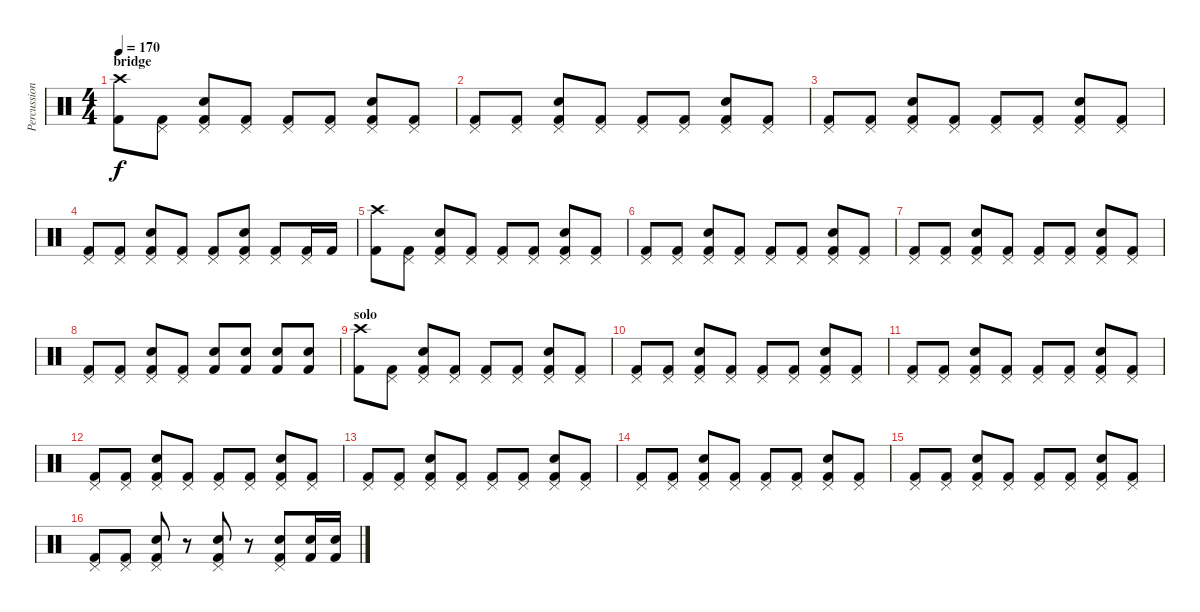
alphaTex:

\track ("Percussion" "Percussion") {instrument percussion}
\staff {score}
\articulation defaults
\ts (4 4)
\section ("" "bridge")
\tempo 170
\clef neutral
\ks c
("Crash high (hit)" "Kick (hit) 2").8{dy f} ("Pedal Hi-Hat (hit)" "Kick (hit) 2").8 ("Pedal Hi-Hat (hit)" "Electric Snare (hit)" "Kick (hit) 2").8 ("Pedal Hi-Hat (hit)" "Kick (hit) 2").8 ("Pedal Hi-Hat (hit)" "Kick (hit) 2").8 ("Pedal Hi-Hat (hit)" "Kick (hit) 2").8 ("Pedal Hi-Hat (hit)" "Electric Snare (hit)" "Kick (hit) 2").8 ("Pedal Hi-Hat (hit)" "Kick (hit) 2").8 |
("Pedal Hi-Hat (hit)" "Kick (hit) 2").8 ("Pedal Hi-Hat (hit)" "Kick (hit) 2").8 ("Pedal Hi-Hat (hit)" "Electric Snare (hit)" "Kick (hit) 2").8 ("Pedal Hi-Hat (hit)" "Kick (hit) 2").8 ("Pedal Hi-Hat (hit)" "Kick (hit) 2").8 ("Pedal Hi-Hat (hit)" "Kick (hit) 2").8 ("Pedal Hi-Hat (hit)" "Electric Snare (hit)" "Kick (hit) 2").8 ("Pedal Hi-Hat (hit)" "Kick (hit) 2").8 |
("Pedal Hi-Hat (hit)" "Kick (hit) 2").8 ("Pedal Hi-Hat (hit)" "Kick (hit) 2").8 ("Pedal Hi-Hat (hit)" "Electric Snare (hit)" "Kick (hit) 2").8 ("Pedal Hi-Hat (hit)" "Kick (hit) 2").8 ("Pedal Hi-Hat (hit)" "Kick (hit) 2").8 ("Pedal Hi-Hat (hit)" "Kick (hit) 2").8 ("Pedal Hi-Hat (hit)" "Electric Snare (hit)" "Kick (hit) 2").8 ("Pedal Hi-Hat (hit)" "Kick (hit) 2").8 |
("Pedal Hi-Hat (hit)" "Kick (hit) 2").8 ("Pedal Hi-Hat (hit)" "Kick (hit) 2").8 ("Pedal Hi-Hat (hit)" "Electric Snare (hit)" "Kick (hit) 2").8 ("Pedal Hi-Hat (hit)" "Kick (hit) 2").8 ("Pedal Hi-Hat (hit)" "Kick (hit) 2").8 ("Pedal Hi-Hat (hit)" "Electric Snare (hit)" "Kick (hit) 2").8 ("Pedal Hi-Hat (hit)" "Kick (hit) 2").8 ("Pedal Hi-Hat (hit)" "Kick (hit) 2").16 "Kick (hit) 2".16 |
("Crash high (hit)" "Kick (hit) 2").8 ("Pedal Hi-Hat (hit)" "Kick (hit) 2").8 ("Pedal Hi-Hat (hit)" "Electric Snare (hit)" "Kick (hit) 2").8 ("Pedal Hi-Hat (hit)" "Kick (hit) 2").8 ("Pedal Hi-Hat (hit)" "Kick (hit) 2").8 ("Pedal Hi-Hat (hit)" "Kick (hit) 2").8 ("Pedal Hi-Hat (hit)" "Electric Snare (hit)" "Kick (hit) 2").8 ("Pedal Hi-Hat (hit)" "Kick (hit) 2").8 |
("Pedal Hi-Hat (hit)" "Kick (hit) 2").8 ("Pedal Hi-Hat (hit)" "Kick (hit) 2").8 ("Pedal Hi-Hat (hit)" "Electric Snare (hit)" "Kick (hit) 2").8 ("Pedal Hi-Hat (hit)" "Kick (hit) 2").8 ("Pedal Hi-Hat (hit)" "Kick (hit) 2").8 ("Pedal Hi-Hat (hit)" "Kick (hit) 2").8 ("Pedal Hi-Hat (hit)" "Electric Snare (hit)" "Kick (hit) 2").8 ("Pedal Hi-Hat (hit)" "Kick (hit) 2").8 |
("Pedal Hi-Hat (hit)" "Kick (hit) 2").8 ("Pedal Hi-Hat (hit)" "Kick (hit) 2").8 ("Pedal Hi-Hat (hit)" "Electric Snare (hit)" "Kick (hit) 2").8 ("Pedal Hi-Hat (hit)" "Kick (hit) 2").8 ("Pedal Hi-Hat (hit)" "Kick (hit) 2").8 ("Pedal Hi-Hat (hit)" "Kick (hit) 2").8 ("Pedal Hi-Hat (hit)" "Electric Snare (hit)" "Kick (hit) 2").8 ("Pedal Hi-Hat (hit)" "Kick (hit) 2").8 |
("Pedal Hi-Hat (hit)" "Kick (hit) 2").8 ("Pedal Hi-Hat (hit)" "Kick (hit) 2").8 ("Pedal Hi-Hat (hit)" "Electric Snare (hit)" "Kick (hit) 2").8 ("Pedal Hi-Hat (hit)" "Kick (hit) 2").8 ("Electric Snare (hit)" "Kick (hit) 2").8 ("Electric Snare (hit)" "Kick (hit) 2").8 ("Electric Snare (hit)" "Kick (hit) 2").8 ("Electric Snare (hit)" "Kick (hit) 2").8 |
\section ("" "solo")
("Crash high (hit)" "Kick (hit) 2").8 ("Pedal Hi-Hat (hit)" "Kick (hit) 2").8 ("Pedal Hi-Hat (hit)" "Electric Snare (hit)" "Kick (hit) 2").8 ("Pedal Hi-Hat (hit)" "Kick (hit) 2").8 ("Pedal Hi-Hat (hit)" "Kick (hit) 2").8 ("Pedal Hi-Hat (hit)" "Kick (hit) 2").8 ("Pedal Hi-Hat (hit)" "Electric Snare (hit)" "Kick (hit) 2").8 ("Pedal Hi-Hat (hit)" "Kick (hit) 2").8 |
("Pedal Hi-Hat (hit)" "Kick (hit) 2").8 ("Pedal Hi-Hat (hit)" "Kick (hit) 2").8 ("Pedal Hi-Hat (hit)" "Electric Snare (hit)" "Kick (hit) 2").8 ("Pedal Hi-Hat (hit)" "Kick (hit) 2").8 ("Pedal Hi-Hat (hit)" "Kick (hit) 2").8 ("Pedal Hi-Hat (hit)" "Kick (hit) 2").8 ("Pedal Hi-Hat (hit)" "Electric Snare (hit)" "Kick (hit) 2").8 ("Pedal Hi-Hat (hit)" "Kick (hit) 2").8 |
("Pedal Hi-Hat (hit)" "Kick (hit) 2").8 ("Pedal Hi-Hat (hit)" "Kick (hit) 2").8 ("Pedal Hi-Hat (hit)" "Electric Snare (hit)" "Kick (hit) 2").8 ("Pedal Hi-Hat (hit)" "Kick (hit) 2").8 ("Pedal Hi-Hat (hit)" "Kick (hit) 2").8 ("Pedal Hi-Hat (hit)" "Kick (hit) 2").8 ("Pedal Hi-Hat (hit)" "Electric Snare (hit)" "Kick (hit) 2").8 ("Pedal Hi-Hat (hit)" "Kick (hit) 2").8 |
("Pedal Hi-Hat (hit)" "Kick (hit) 2").8 ("Pedal Hi-Hat (hit)" "Kick (hit) 2").8 ("Pedal Hi-Hat (hit)" "Electric Snare (hit)" "Kick (hit) 2").8 ("Pedal Hi-Hat (hit)" "Kick (hit) 2").8 ("Pedal Hi-Hat (hit)" "Kick (hit) 2").8 ("Pedal Hi-Hat (hit)" "Kick (hit) 2").8 ("Pedal Hi-Hat (hit)" "Electric Snare (hit)" "Kick (hit) 2").8 ("Pedal Hi-Hat (hit)" "Kick (hit) 2").8 |
("Pedal Hi-Hat (hit)" "Kick (hit) 2").8 ("Pedal Hi-Hat (hit)" "Kick (hit) 2").8 ("Pedal Hi-Hat (hit)" "Electric Snare (hit)" "Kick (hit) 2").8 ("Pedal Hi-Hat (hit)" "Kick (hit) 2").8 ("Pedal Hi-Hat (hit)" "Kick (hit) 2").8 ("Pedal Hi-Hat (hit)" "Kick (hit) 2").8 ("Pedal Hi-Hat (hit)" "Electric Snare (hit)" "Kick (hit) 2").8 ("Pedal Hi-Hat (hit)" "Kick (hit) 2").8 |
("Pedal Hi-Hat (hit)" "Kick (hit) 2").8 ("Pedal Hi-Hat (hit)" "Kick (hit) 2").8 ("Pedal Hi-Hat (hit)" "Electric Snare (hit)" "Kick (hit) 2").8 ("Pedal Hi-Hat (hit)" "Kick (hit) 2").8 ("Pedal Hi-Hat (hit)" "Kick (hit) 2").8 ("Pedal Hi-Hat (hit)" "Kick (hit) 2").8 ("Pedal Hi-Hat (hit)" "Electric Snare (hit)" "Kick (hit) 2").8 ("Pedal Hi-Hat (hit)" "Kick (hit) 2").8 |
("Pedal Hi-Hat (hit)" "Kick (hit) 2").8 ("Pedal Hi-Hat (hit)" "Kick (hit) 2").8 ("Pedal Hi-Hat (hit)" "Electric Snare (hit)" "Kick (hit) 2").8 ("Pedal Hi-Hat (hit)" "Kick (hit) 2").8 ("Pedal Hi-Hat (hit)" "Kick (hit) 2").8 ("Pedal Hi-Hat (hit)" "Kick (hit) 2").8 ("Pedal Hi-Hat (hit)" "Electric Snare (hit)" "Kick (hit) 2").8 ("Pedal Hi-Hat (hit)" "Kick (hit) 2").8 |
("Pedal Hi-Hat (hit)" "Kick (hit) 2").8 ("Pedal Hi-Hat (hit)" "Kick (hit) 2").8 ("Pedal Hi-Hat (hit)" "Electric Snare (hit)" "Kick (hit) 2").8 r.8 ("Pedal Hi-Hat (hit)" "Electric Snare (hit)" "Kick (hit) 2").8 r.8 ("Pedal Hi-Hat (hit)" "Electric Snare (hit)" "Kick (hit) 2").8 ("Electric Snare (hit)" "Kick (hit) 2").16 ("Electric Snare (hit)" "Kick (hit) 2").16
